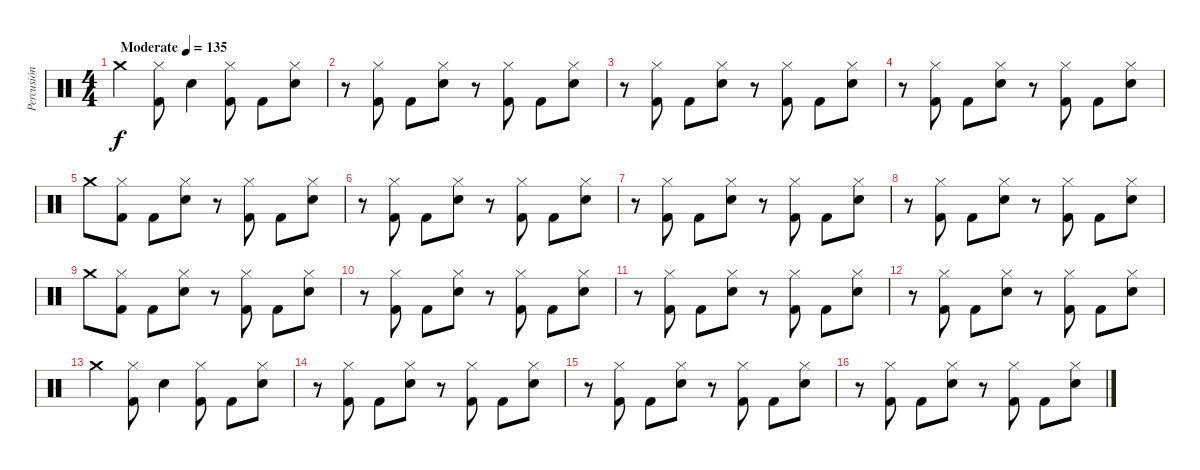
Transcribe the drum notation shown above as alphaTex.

\track ("Percusión" "Percusión") {instrument percussion}
\staff {score}
\articulation defaults
\ts (4 4)
\tempo (135 "Moderate")
\clef neutral
\ks c "Crash medium (hit)".4{dy f}
("Hi-Hat (closed)" "Kick (hit) 2").8 "Snare (hit) 2".4 ("Hi-Hat (closed)" "Kick (hit) 2").8 "Kick (hit) 2".8 ("Snare (hit) 2" "Hi-Hat (closed)").8 |
r.8 ("Hi-Hat (closed)" "Kick (hit) 2").8 "Kick (hit) 2".8 ("Snare (hit) 2" "Hi-Hat (closed)").8 r.8 ("Hi-Hat (closed)" "Kick (hit) 2").8 "Kick (hit) 2".8 ("Snare (hit) 2" "Hi-Hat (closed)").8 |
r.8 ("Hi-Hat (closed)" "Kick (hit) 2").8 "Kick (hit) 2".8 ("Snare (hit) 2" "Hi-Hat (closed)").8 r.8 ("Hi-Hat (closed)" "Kick (hit) 2").8 "Kick (hit) 2".8 ("Snare (hit) 2" "Hi-Hat (closed)").8 |
r.8 ("Hi-Hat (closed)" "Kick (hit) 2").8 "Kick (hit) 2".8 ("Snare (hit) 2" "Hi-Hat (closed)").8 r.8 ("Hi-Hat (closed)" "Kick (hit) 2").8 "Kick (hit) 2".8 ("Snare (hit) 2" "Hi-Hat (closed)").8 |
"Crash medium (hit)".8 ("Hi-Hat (closed)" "Kick (hit) 2").8 "Kick (hit) 2".8 ("Snare (hit) 2" "Hi-Hat (closed)").8 r.8 ("Hi-Hat (closed)" "Kick (hit) 2").8 "Kick (hit) 2".8 ("Snare (hit) 2" "Hi-Hat (closed)").8 |
r.8 ("Hi-Hat (closed)" "Kick (hit) 2").8 "Kick (hit) 2".8 ("Snare (hit) 2" "Hi-Hat (closed)").8 r.8 ("Hi-Hat (closed)" "Kick (hit) 2").8 "Kick (hit) 2".8 ("Snare (hit) 2" "Hi-Hat (closed)").8 |
r.8 ("Hi-Hat (closed)" "Kick (hit) 2").8 "Kick (hit) 2".8 ("Snare (hit) 2" "Hi-Hat (closed)").8 r.8 ("Hi-Hat (closed)" "Kick (hit) 2").8 "Kick (hit) 2".8 ("Snare (hit) 2" "Hi-Hat (closed)").8 |
r.8 ("Hi-Hat (closed)" "Kick (hit) 2").8 "Kick (hit) 2".8 ("Snare (hit) 2" "Hi-Hat (closed)").8 r.8 ("Hi-Hat (closed)" "Kick (hit) 2").8 "Kick (hit) 2".8 ("Snare (hit) 2" "Hi-Hat (closed)").8 |
"Crash medium (hit)".8 ("Hi-Hat (closed)" "Kick (hit) 2").8 "Kick (hit) 2".8 ("Snare (hit) 2" "Hi-Hat (closed)").8 r.8 ("Hi-Hat (closed)" "Kick (hit) 2").8 "Kick (hit) 2".8 ("Snare (hit) 2" "Hi-Hat (closed)").8 |
r.8 ("Hi-Hat (closed)" "Kick (hit) 2").8 "Kick (hit) 2".8 ("Snare (hit) 2" "Hi-Hat (closed)").8 r.8 ("Hi-Hat (closed)" "Kick (hit) 2").8 "Kick (hit) 2".8 ("Snare (hit) 2" "Hi-Hat (closed)").8 |
r.8 ("Hi-Hat (closed)" "Kick (hit) 2").8 "Kick (hit) 2".8 ("Snare (hit) 2" "Hi-Hat (closed)").8 r.8 ("Hi-Hat (closed)" "Kick (hit) 2").8 "Kick (hit) 2".8 ("Snare (hit) 2" "Hi-Hat (closed)").8 |
r.8 ("Hi-Hat (closed)" "Kick (hit) 2").8 "Kick (hit) 2".8 ("Snare (hit) 2" "Hi-Hat (closed)").8 r.8 ("Hi-Hat (closed)" "Kick (hit) 2").8 "Kick (hit) 2".8 ("Snare (hit) 2" "Hi-Hat (closed)").8 |
"Crash medium (hit)".4 ("Hi-Hat (closed)" "Kick (hit) 2").8 "Snare (hit) 2".4 ("Hi-Hat (closed)" "Kick (hit) 2").8 "Kick (hit) 2".8 ("Snare (hit) 2" "Hi-Hat (closed)").8 |
r.8 ("Hi-Hat (closed)" "Kick (hit) 2").8 "Kick (hit) 2".8 ("Snare (hit) 2" "Hi-Hat (closed)").8 r.8 ("Hi-Hat (closed)" "Kick (hit) 2").8 "Kick (hit) 2".8 ("Snare (hit) 2" "Hi-Hat (closed)").8 |
r.8 ("Hi-Hat (closed)" "Kick (hit) 2").8 "Kick (hit) 2".8 ("Snare (hit) 2" "Hi-Hat (closed)").8 r.8 ("Hi-Hat (closed)" "Kick (hit) 2").8 "Kick (hit) 2".8 ("Snare (hit) 2" "Hi-Hat (closed)").8 |
r.8 ("Hi-Hat (closed)" "Kick (hit) 2").8 "Kick (hit) 2".8 ("Snare (hit) 2" "Hi-Hat (closed)").8 r.8 ("Hi-Hat (closed)" "Kick (hit) 2").8 "Kick (hit) 2".8 ("Snare (hit) 2" "Hi-Hat (closed)").8
